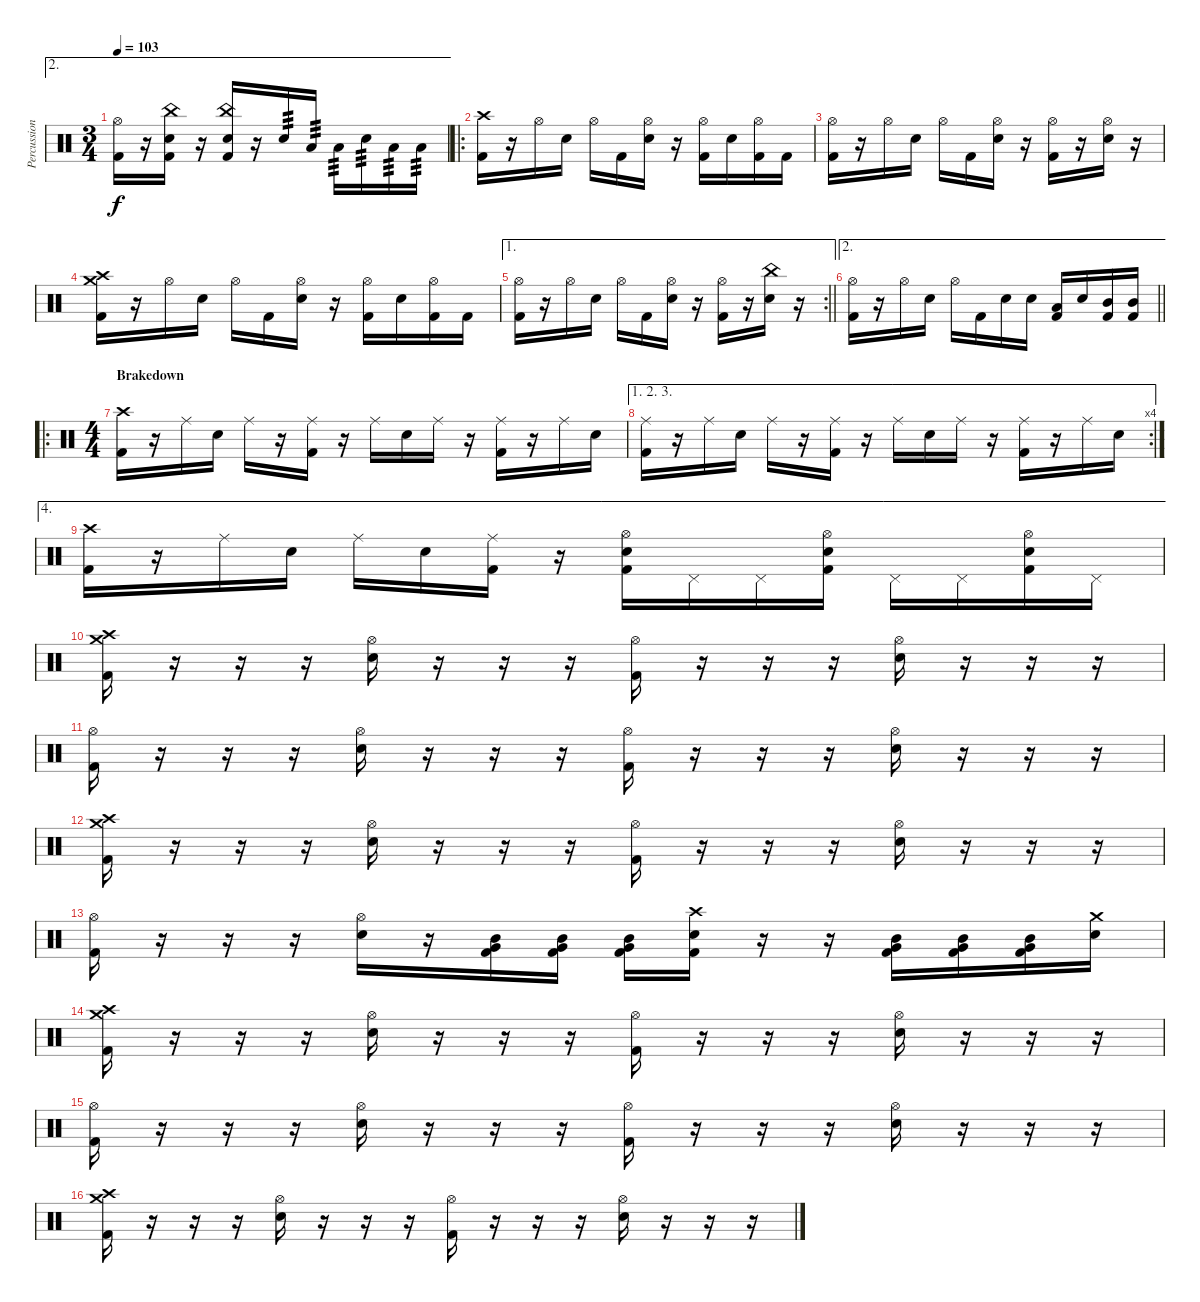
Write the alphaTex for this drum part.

\track ("Percussion" "Percussion") {instrument percussion}
\staff {score}
\articulation defaults
\ae 2
\ts (3 4)
\tempo 103
\clef neutral
\ks c
("Hi-Hat (open)" "Kick (hit) 2").16{dy f} r.16 ("China (hit)" "Electric Snare (hit)" "Kick (hit) 2").16 r.16 ("China (hit)" "Electric Snare (hit)" "Kick (hit) 2").16 r.16 "Electric Snare (hit)".16{tp 3} "Low Tom (hit)".16{tp 3} "Low Tom (hit)".16{tp 3} "Electric Snare (hit)".16{tp 3} "Low Tom (hit)".16{tp 3} "Low Tom (hit)".16{tp 3} |
\ro
("Crash high (hit)" "Kick (hit) 2").16 r.16 "Hi-Hat (open)".16 "Electric Snare (hit)".16 "Hi-Hat (open)".16 "Kick (hit) 2".16 ("Hi-Hat (open)" "Electric Snare (hit)").16 r.16 ("Hi-Hat (open)" "Kick (hit) 2").16 "Electric Snare (hit)".16 ("Hi-Hat (open)" "Kick (hit) 2").16 "Kick (hit) 2".16 |
("Hi-Hat (open)" "Kick (hit) 2").16 r.16 "Hi-Hat (open)".16 "Electric Snare (hit)".16 "Hi-Hat (open)".16 "Kick (hit) 2".16 ("Hi-Hat (open)" "Electric Snare (hit)").16 r.16 ("Hi-Hat (open)" "Kick (hit) 2").16 r.16 ("Hi-Hat (open)" "Electric Snare (hit)").16 r.16 |
("Crash high (hit)" "Crash medium (hit)" "Kick (hit) 2").16 r.16 "Hi-Hat (open)".16 "Electric Snare (hit)".16 "Hi-Hat (open)".16 "Kick (hit) 2".16 ("Hi-Hat (open)" "Electric Snare (hit)").16 r.16 ("Hi-Hat (open)" "Kick (hit) 2").16 "Electric Snare (hit)".16 ("Hi-Hat (open)" "Kick (hit) 2").16 "Kick (hit) 2".16 |
\ae 1
\rc 2
\barLineRight lightlight
("Hi-Hat (open)" "Kick (hit) 2").16 r.16 "Hi-Hat (open)".16 "Electric Snare (hit)".16 "Hi-Hat (open)".16 "Kick (hit) 2".16 ("Hi-Hat (open)" "Electric Snare (hit)").16 r.16 ("Hi-Hat (open)" "Kick (hit) 2").16 r.16 ("China (hit)" "Electric Snare (hit)").16 r.16 |
\ae 2
\barLineRight lightlight
("Hi-Hat (open)" "Kick (hit) 2").16 r.16 "Hi-Hat (open)".16 "Electric Snare (hit)".16 "Hi-Hat (open)".16 "Kick (hit) 2".16 "Electric Snare (hit)".16 "Electric Snare (hit)".16 ("Low Tom (hit)" "Kick (hit) 2").16 "Electric Snare (hit)".16 ("Mid Tom (hit)" "Kick (hit) 2").16 ("Mid Tom (hit)" "Kick (hit) 2").16 |
\ro
\ts (4 4)
\section ("" "Brakedown")
("Crash high (hit)" "Kick (hit) 2").16 r.16 "Ride (middle)".16 "Electric Snare (hit)".16 "Ride (middle)".16 r.16 ("Ride (middle)" "Kick (hit) 2").16 r.16 "Ride (middle)".16 "Electric Snare (hit)".16 "Ride (middle)".16 r.16 ("Ride (middle)" "Kick (hit) 2").16 r.16 "Ride (middle)".16 "Electric Snare (hit)".16 |
\ae (1 2 3)
\rc 4
("Ride (middle)" "Kick (hit) 2").16 r.16 "Ride (middle)".16 "Electric Snare (hit)".16 "Ride (middle)".16 r.16 ("Ride (middle)" "Kick (hit) 2").16 r.16 "Ride (middle)".16 "Electric Snare (hit)".16 "Ride (middle)".16 r.16 ("Ride (middle)" "Kick (hit) 2").16 r.16 "Ride (middle)".16 "Electric Snare (hit)".16 |
\ae 4
("Crash high (hit)" "Kick (hit) 2").16 r.16 "Ride (middle)".16 "Electric Snare (hit)".16 "Ride (middle)".16 "Electric Snare (hit)".16 ("Ride (middle)" "Kick (hit) 2").16 r.16 ("Hi-Hat (open)" "Electric Snare (hit)" "Kick (hit) 2").16 "Pedal Hi-Hat (hit)".16 "Pedal Hi-Hat (hit)".16 ("Hi-Hat (open)" "Electric Snare (hit)" "Kick (hit) 2").16 "Pedal Hi-Hat (hit)".16 "Pedal Hi-Hat (hit)".16 ("Hi-Hat (open)" "Electric Snare (hit)" "Kick (hit) 2").16 "Pedal Hi-Hat (hit)".16 |
("Crash high (hit)" "Crash medium (hit)" "Kick (hit) 2").16 r.16 r.16 r.16 ("Hi-Hat (open)" "Electric Snare (hit)").16 r.16 r.16 r.16 ("Hi-Hat (open)" "Kick (hit) 2").16 r.16 r.16 r.16 ("Hi-Hat (open)" "Electric Snare (hit)").16 r.16 r.16 r.16 |
("Hi-Hat (open)" "Kick (hit) 2").16 r.16 r.16 r.16 ("Hi-Hat (open)" "Electric Snare (hit)").16 r.16 r.16 r.16 ("Hi-Hat (open)" "Kick (hit) 2").16 r.16 r.16 r.16 ("Hi-Hat (open)" "Electric Snare (hit)").16 r.16 r.16 r.16 |
("Crash high (hit)" "Crash medium (hit)" "Kick (hit) 2").16 r.16 r.16 r.16 ("Hi-Hat (open)" "Electric Snare (hit)").16 r.16 r.16 r.16 ("Hi-Hat (open)" "Kick (hit) 2").16 r.16 r.16 r.16 ("Hi-Hat (open)" "Electric Snare (hit)").16 r.16 r.16 r.16 |
("Hi-Hat (open)" "Kick (hit) 2").16 r.16 r.16 r.16 ("Hi-Hat (open)" "Electric Snare (hit)").16 r.16 ("Mid Tom (hit)" "Very Low Tom (hit)" "Kick (hit) 2").16 ("Mid Tom (hit)" "Very Low Tom (hit)" "Kick (hit) 2").16 ("Mid Tom (hit)" "Very Low Tom (hit)" "Kick (hit) 2").16 ("Crash high (hit)" "Electric Snare (hit)" "Kick (hit) 2").16 r.16 r.16 ("Mid Tom (hit)" "Very Low Tom (hit)" "Kick (hit) 2").16 ("Mid Tom (hit)" "Very Low Tom (hit)" "Kick (hit) 2").16 ("Mid Tom (hit)" "Very Low Tom (hit)" "Kick (hit) 2").16 ("Crash medium (hit)" "Electric Snare (hit)").16 |
("Crash high (hit)" "Crash medium (hit)" "Kick (hit) 2").16 r.16 r.16 r.16 ("Hi-Hat (open)" "Electric Snare (hit)").16 r.16 r.16 r.16 ("Hi-Hat (open)" "Kick (hit) 2").16 r.16 r.16 r.16 ("Hi-Hat (open)" "Electric Snare (hit)").16 r.16 r.16 r.16 |
("Hi-Hat (open)" "Kick (hit) 2").16 r.16 r.16 r.16 ("Hi-Hat (open)" "Electric Snare (hit)").16 r.16 r.16 r.16 ("Hi-Hat (open)" "Kick (hit) 2").16 r.16 r.16 r.16 ("Hi-Hat (open)" "Electric Snare (hit)").16 r.16 r.16 r.16 |
("Crash high (hit)" "Crash medium (hit)" "Kick (hit) 2").16 r.16 r.16 r.16 ("Hi-Hat (open)" "Electric Snare (hit)").16 r.16 r.16 r.16 ("Hi-Hat (open)" "Kick (hit) 2").16 r.16 r.16 r.16 ("Hi-Hat (open)" "Electric Snare (hit)").16 r.16 r.16 r.16
